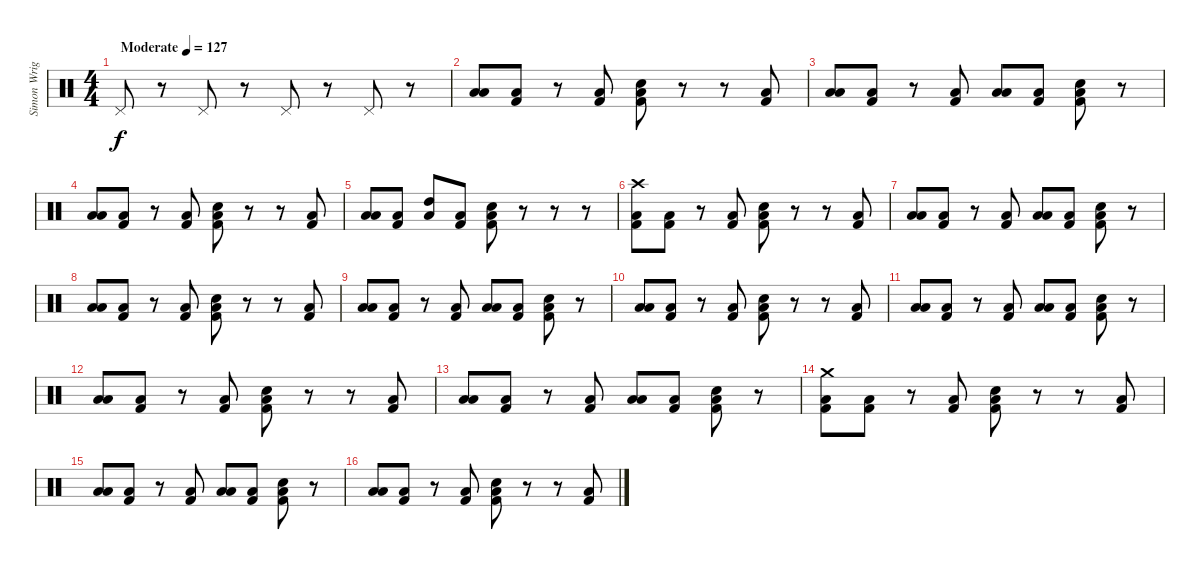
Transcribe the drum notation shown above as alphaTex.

\track ("Simon Wright" "Simon Wrig") {instrument percussion}
\staff {score}
\articulation defaults
\ts (4 4)
\tempo (127 "Moderate")
\clef neutral
\ks c "Pedal Hi-Hat (hit)".8{dy f}
r.8 "Pedal Hi-Hat (hit)".8 r.8 "Pedal Hi-Hat (hit)".8 r.8 "Pedal Hi-Hat (hit)".8 r.8 |
("Low Tom (hit)" "Low Floor Tom (hit)").8{bu 240} ("Low Floor Tom (hit)" "Kick (hit) 2").8 r.8 ("Low Floor Tom (hit)" "Kick (hit) 2").8 ("Low Tom (hit)" "Snare (hit) 2" "Kick (hit) 2").8 r.8 r.8 ("Low Floor Tom (hit)" "Kick (hit) 2").8 |
("Low Tom (hit)" "Low Floor Tom (hit)").8{bu 240} ("Low Floor Tom (hit)" "Kick (hit) 2").8 r.8 ("Low Floor Tom (hit)" "Kick (hit) 2").8 ("Low Tom (hit)" "Low Floor Tom (hit)").8{bu 240} ("Low Floor Tom (hit)" "Kick (hit) 2").8 ("Low Tom (hit)" "Snare (hit) 2" "Kick (hit) 2").8 r.8 |
("Low Tom (hit)" "Low Floor Tom (hit)").8{bu 240} ("Low Floor Tom (hit)" "Kick (hit) 2").8 r.8 ("Low Floor Tom (hit)" "Kick (hit) 2").8 ("Low Tom (hit)" "Snare (hit) 2" "Kick (hit) 2").8 r.8 r.8 ("Low Floor Tom (hit)" "Kick (hit) 2").8 |
("Low Tom (hit)" "Low Floor Tom (hit)").8{bu 240} ("Low Floor Tom (hit)" "Kick (hit) 2").8 ("High Tom (hit)" "Low Floor Tom (hit)").8{bu 240} ("Low Floor Tom (hit)" "Kick (hit) 2").8 ("Low Tom (hit)" "Snare (hit) 2" "Kick (hit) 2").8 r.8 r.8 r.8 |
("Crash high (hit)" "Low Floor Tom (hit)" "Kick (hit) 2").8 ("Low Floor Tom (hit)" "Kick (hit) 2").8 r.8 ("Low Floor Tom (hit)" "Kick (hit) 2").8 ("Low Tom (hit)" "Snare (hit) 2" "Kick (hit) 2").8 r.8 r.8 ("Low Floor Tom (hit)" "Kick (hit) 2").8 |
("Low Tom (hit)" "Low Floor Tom (hit)").8{bu 240} ("Low Floor Tom (hit)" "Kick (hit) 2").8 r.8 ("Low Floor Tom (hit)" "Kick (hit) 2").8 ("Low Tom (hit)" "Low Floor Tom (hit)").8{bu 240} ("Low Floor Tom (hit)" "Kick (hit) 2").8 ("Low Tom (hit)" "Snare (hit) 2" "Kick (hit) 2").8 r.8 |
("Low Tom (hit)" "Low Floor Tom (hit)").8{bu 240} ("Low Floor Tom (hit)" "Kick (hit) 2").8 r.8 ("Low Floor Tom (hit)" "Kick (hit) 2").8 ("Low Tom (hit)" "Snare (hit) 2" "Kick (hit) 2").8 r.8 r.8 ("Low Floor Tom (hit)" "Kick (hit) 2").8 |
("Low Tom (hit)" "Low Floor Tom (hit)").8{bu 240} ("Low Floor Tom (hit)" "Kick (hit) 2").8 r.8 ("Low Floor Tom (hit)" "Kick (hit) 2").8 ("Low Tom (hit)" "Low Floor Tom (hit)").8{bu 240} ("Low Floor Tom (hit)" "Kick (hit) 2").8 ("Low Tom (hit)" "Snare (hit) 2" "Kick (hit) 2").8 r.8 |
("Low Tom (hit)" "Low Floor Tom (hit)").8{bu 240} ("Low Floor Tom (hit)" "Kick (hit) 2").8 r.8 ("Low Floor Tom (hit)" "Kick (hit) 2").8 ("Low Tom (hit)" "Snare (hit) 2" "Kick (hit) 2").8 r.8 r.8 ("Low Floor Tom (hit)" "Kick (hit) 2").8 |
("Low Tom (hit)" "Low Floor Tom (hit)").8{bu 240} ("Low Floor Tom (hit)" "Kick (hit) 2").8 r.8 ("Low Floor Tom (hit)" "Kick (hit) 2").8 ("Low Tom (hit)" "Low Floor Tom (hit)").8{bu 240} ("Low Floor Tom (hit)" "Kick (hit) 2").8 ("Low Tom (hit)" "Snare (hit) 2" "Kick (hit) 2").8 r.8 |
("Low Tom (hit)" "Low Floor Tom (hit)").8{bu 240} ("Low Floor Tom (hit)" "Kick (hit) 2").8 r.8 ("Low Floor Tom (hit)" "Kick (hit) 2").8 ("Low Tom (hit)" "Snare (hit) 2" "Kick (hit) 2").8 r.8 r.8 ("Low Floor Tom (hit)" "Kick (hit) 2").8 |
("Low Tom (hit)" "Low Floor Tom (hit)").8{bu 240} ("Low Floor Tom (hit)" "Kick (hit) 2").8 r.8 ("Low Floor Tom (hit)" "Kick (hit) 2").8 ("Low Tom (hit)" "Low Floor Tom (hit)").8{bu 240} ("Low Floor Tom (hit)" "Kick (hit) 2").8 ("Low Tom (hit)" "Snare (hit) 2" "Kick (hit) 2").8 r.8 |
("Crash medium (hit)" "Low Floor Tom (hit)" "Kick (hit) 2").8 ("Low Floor Tom (hit)" "Kick (hit) 2").8 r.8 ("Low Floor Tom (hit)" "Kick (hit) 2").8 ("Low Tom (hit)" "Snare (hit) 2" "Kick (hit) 2").8 r.8 r.8 ("Low Floor Tom (hit)" "Kick (hit) 2").8 |
("Low Tom (hit)" "Low Floor Tom (hit)").8{bu 240} ("Low Floor Tom (hit)" "Kick (hit) 2").8 r.8 ("Low Floor Tom (hit)" "Kick (hit) 2").8 ("Low Tom (hit)" "Low Floor Tom (hit)").8{bu 240} ("Low Floor Tom (hit)" "Kick (hit) 2").8 ("Low Tom (hit)" "Snare (hit) 2" "Kick (hit) 2").8 r.8 |
("Low Tom (hit)" "Low Floor Tom (hit)").8{bu 240} ("Low Floor Tom (hit)" "Kick (hit) 2").8 r.8 ("Low Floor Tom (hit)" "Kick (hit) 2").8 ("Low Tom (hit)" "Snare (hit) 2" "Kick (hit) 2").8 r.8 r.8 ("Low Floor Tom (hit)" "Kick (hit) 2").8
